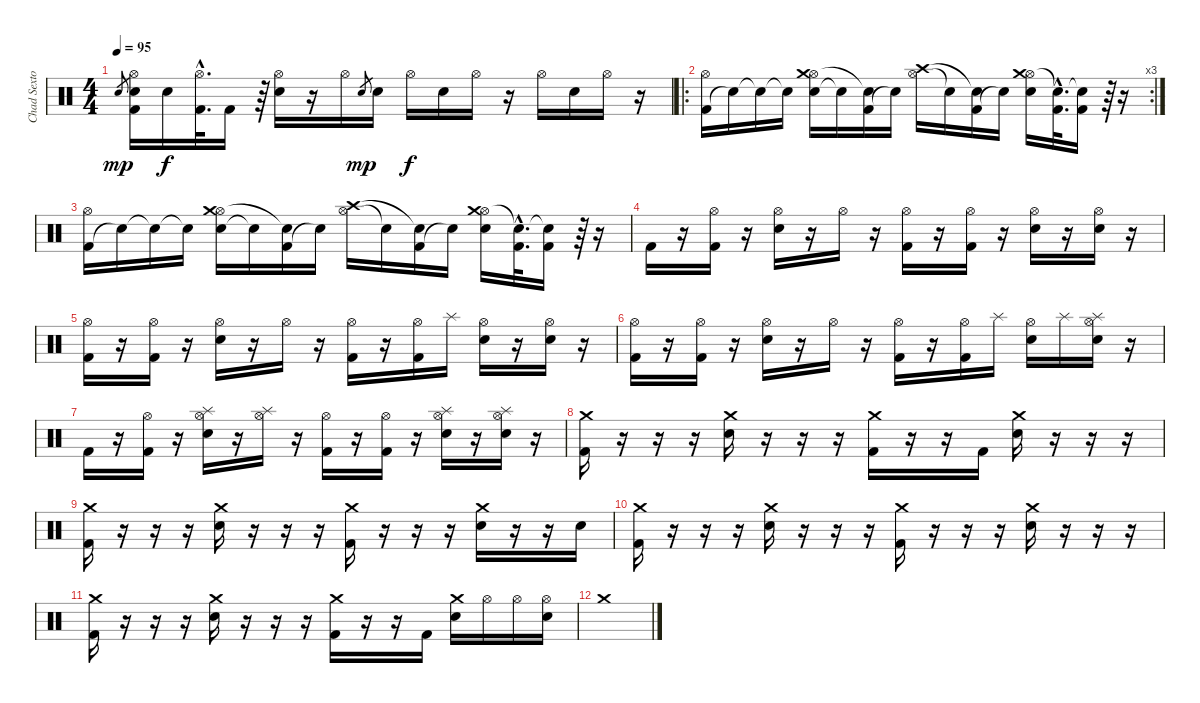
\track ("Chad Sexton" "Chad Sexto") {instrument percussion}
\staff {score}
\articulation defaults
\ts (4 4)
\tempo 95
\clef neutral
\ks c "Electric Snare (hit)".8{gr dy mp}
("Hi-Hat (open)" "Kick (hit) 2" "Electric Snare (hit)").16 "Electric Snare (hit)".16{dy f} ("Hi-Hat (open)"{hac} "Kick (hit) 2"{hac}).32{d} "Kick (hit) 2".16 r.64 ("Hi-Hat (open)" "Electric Snare (hit)").16 r.16 "Hi-Hat (open)".16 "Electric Snare (hit)".8{gr dy mp} "Electric Snare (hit)".16 "Hi-Hat (open)".16{dy f} "Electric Snare (hit)".16 "Hi-Hat (open)".16 r.16 "Hi-Hat (open)".16 "Electric Snare (hit)".16 "Hi-Hat (open)".16 r.16 |
\ro
\rc 3
("Kick (hit) 2" "Hi-Hat (open)").16 "Snare (hit)"{t}.16 "Snare (hit)"{t}.16 "Snare (hit)"{t}.16 ("Electric Snare (hit)" "Hi-Hat (open)" "Crash medium (hit)").16 "Snare (hit)"{t}.16 ("Kick (hit) 2" "Snare (hit)"{t}).16 "Snare (hit)"{t}.16 ("Hi-Hat (open)" "Crash high (hit)").16 "Snare (hit)"{t}.16 ("Kick (hit) 2" "Snare (hit)"{t}).16 "Snare (hit)"{t}.16 ("Electric Snare (hit)" "Hi-Hat (open)" "Crash medium (hit)").16 ("Kick (hit) 2"{hac} "Snare (hit)"{hac t}).32{d} ("Kick (hit) 2" "Snare (hit)"{t}).16 r.64 r.16 |
("Kick (hit) 2" "Hi-Hat (open)").16 "Snare (hit)"{t}.16 "Snare (hit)"{t}.16 "Snare (hit)"{t}.16 ("Electric Snare (hit)" "Hi-Hat (open)" "Crash medium (hit)").16 "Snare (hit)"{t}.16 ("Kick (hit) 2" "Snare (hit)"{t}).16 "Snare (hit)"{t}.16 ("Hi-Hat (open)" "Crash high (hit)").16 "Snare (hit)"{t}.16 ("Kick (hit) 2" "Snare (hit)"{t}).16 "Snare (hit)"{t}.16 ("Electric Snare (hit)" "Hi-Hat (open)" "Crash medium (hit)").16 ("Kick (hit) 2"{hac} "Snare (hit)"{hac t}).32{d} ("Kick (hit) 2" "Snare (hit)"{t}).16 r.64 r.16 |
"Kick (hit) 2".16 r.16 ("Hi-Hat (open)" "Kick (hit) 2").16 r.16 ("Hi-Hat (open)" "Electric Snare (hit)").16 r.16 "Hi-Hat (open)".16 r.16 ("Hi-Hat (open)" "Kick (hit) 2").16 r.16 ("Hi-Hat (open)" "Kick (hit) 2").16 r.16 ("Hi-Hat (open)" "Electric Snare (hit)").16 r.16 ("Hi-Hat (open)" "Electric Snare (hit)").16 r.16 |
("Kick (hit) 2" "Hi-Hat (open)").16 r.16 ("Hi-Hat (open)" "Kick (hit) 2").16 r.16 ("Hi-Hat (open)" "Electric Snare (hit)").16 r.16 "Hi-Hat (open)".16 r.16 ("Hi-Hat (open)" "Kick (hit) 2").16 r.16 ("Hi-Hat (open)" "Kick (hit) 2").16 "Splash (hit)".16 ("Hi-Hat (open)" "Electric Snare (hit)").16 r.16 ("Hi-Hat (open)" "Electric Snare (hit)").16 r.16 |
("Kick (hit) 2" "Hi-Hat (open)").16 r.16 ("Hi-Hat (open)" "Kick (hit) 2").16 r.16 ("Hi-Hat (open)" "Electric Snare (hit)").16 r.16 "Hi-Hat (open)".16 r.16 ("Hi-Hat (open)" "Kick (hit) 2").16 r.16 ("Hi-Hat (open)" "Kick (hit) 2").16 "Splash (hit)".16 ("Hi-Hat (open)" "Electric Snare (hit)").16 "Splash (hit)".16 ("Hi-Hat (open)" "Electric Snare (hit)" "Splash (hit)").16 r.16 |
"Kick (hit) 2".16 r.16 ("Hi-Hat (open)" "Kick (hit) 2").16 r.16 ("Hi-Hat (open)" "Electric Snare (hit)" "Splash (hit)").16 r.16 ("Hi-Hat (open)" "Splash (hit)").16 r.16 ("Hi-Hat (open)" "Kick (hit) 2").16 r.16 ("Hi-Hat (open)" "Kick (hit) 2").16 r.16 ("Hi-Hat (open)" "Electric Snare (hit)" "Splash (hit)").16 r.16 ("Hi-Hat (open)" "Electric Snare (hit)" "Splash (hit)").16 r.16 |
("Kick (hit) 2" "Crash medium (hit)").16 r.16 r.16 r.16 ("Electric Snare (hit)" "Crash medium (hit)").16 r.16 r.16 r.16 ("Kick (hit) 2" "Crash medium (hit)").16 r.16 r.16 "Kick (hit) 2".16 ("Electric Snare (hit)" "Crash medium (hit)").16 r.16 r.16 r.16 |
("Kick (hit) 2" "Crash medium (hit)").16 r.16 r.16 r.16 ("Electric Snare (hit)" "Crash medium (hit)").16 r.16 r.16 r.16 ("Kick (hit) 2" "Crash medium (hit)").16 r.16 r.16 r.16 ("Electric Snare (hit)" "Crash medium (hit)").16 r.16 r.16 "Electric Snare (hit)".16 |
("Kick (hit) 2" "Crash medium (hit)").16 r.16 r.16 r.16 ("Electric Snare (hit)" "Crash medium (hit)").16 r.16 r.16 r.16 ("Kick (hit) 2" "Crash medium (hit)").16 r.16 r.16 r.16 ("Electric Snare (hit)" "Crash medium (hit)").16 r.16 r.16 r.16 |
("Kick (hit) 2" "Crash medium (hit)").16 r.16 r.16 r.16 ("Electric Snare (hit)" "Crash medium (hit)").16 r.16 r.16 r.16 ("Kick (hit) 2" "Crash medium (hit)").16 r.16 r.16 "Kick (hit) 2".16 ("Electric Snare (hit)" "Crash medium (hit)").16 "Hi-Hat (open)".16 "Hi-Hat (open)".16 ("Hi-Hat (open)" "Electric Snare (hit)").16 |
"Crash medium (hit)".1
